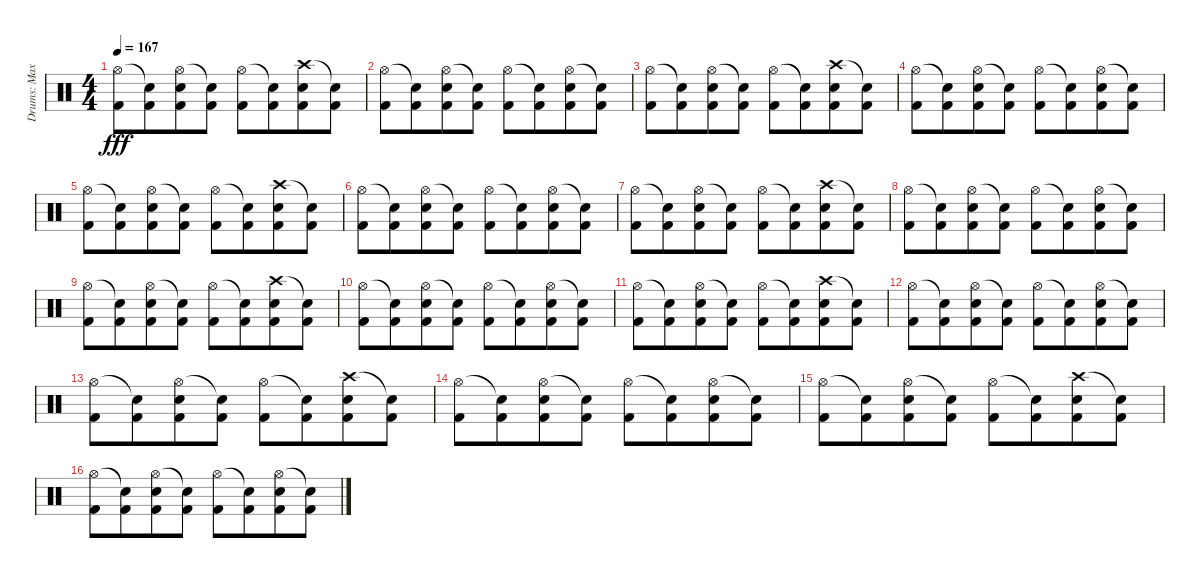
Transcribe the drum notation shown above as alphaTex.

\track ("Drums: Max" "Drums: Max") {instrument percussion}
\staff {score}
\articulation defaults
\ts (4 4)
\tempo 167
\clef neutral
\ks c
("Hi-Hat (open)" "Kick (hit) 2").8{dy fff} ("Snare (hit)"{t} "Kick (hit) 2").8{beam merge} ("Hi-Hat (open)" "Electric Snare (hit)" "Kick (hit) 2").8 ("Snare (hit)"{t} "Kick (hit) 2").8 ("Hi-Hat (open)" "Kick (hit) 2").8 ("Snare (hit)"{t} "Kick (hit) 2").8{beam merge} ("Crash high (hit)" "Electric Snare (hit)" "Kick (hit) 2").8 ("Snare (hit)"{t} "Kick (hit) 2").8 |
("Hi-Hat (open)" "Kick (hit) 2").8 ("Snare (hit)"{t} "Kick (hit) 2").8{beam merge} ("Hi-Hat (open)" "Electric Snare (hit)" "Kick (hit) 2").8 ("Snare (hit)"{t} "Kick (hit) 2").8 ("Hi-Hat (open)" "Kick (hit) 2").8 ("Snare (hit)"{t} "Kick (hit) 2").8{beam merge} ("Hi-Hat (open)" "Electric Snare (hit)" "Kick (hit) 2").8 ("Snare (hit)"{t} "Kick (hit) 2").8 |
("Hi-Hat (open)" "Kick (hit) 2").8 ("Snare (hit)"{t} "Kick (hit) 2").8{beam merge} ("Hi-Hat (open)" "Electric Snare (hit)" "Kick (hit) 2").8 ("Snare (hit)"{t} "Kick (hit) 2").8 ("Hi-Hat (open)" "Kick (hit) 2").8 ("Snare (hit)"{t} "Kick (hit) 2").8{beam merge} ("Crash high (hit)" "Electric Snare (hit)" "Kick (hit) 2").8 ("Snare (hit)"{t} "Kick (hit) 2").8 |
("Hi-Hat (open)" "Kick (hit) 2").8 ("Snare (hit)"{t} "Kick (hit) 2").8{beam merge} ("Hi-Hat (open)" "Electric Snare (hit)" "Kick (hit) 2").8 ("Snare (hit)"{t} "Kick (hit) 2").8 ("Hi-Hat (open)" "Kick (hit) 2").8 ("Snare (hit)"{t} "Kick (hit) 2").8{beam merge} ("Hi-Hat (open)" "Electric Snare (hit)" "Kick (hit) 2").8 ("Snare (hit)"{t} "Kick (hit) 2").8 |
("Hi-Hat (open)" "Kick (hit) 2").8 ("Snare (hit)"{t} "Kick (hit) 2").8{beam merge} ("Hi-Hat (open)" "Electric Snare (hit)" "Kick (hit) 2").8 ("Snare (hit)"{t} "Kick (hit) 2").8 ("Hi-Hat (open)" "Kick (hit) 2").8 ("Snare (hit)"{t} "Kick (hit) 2").8{beam merge} ("Crash high (hit)" "Electric Snare (hit)" "Kick (hit) 2").8 ("Snare (hit)"{t} "Kick (hit) 2").8 |
("Hi-Hat (open)" "Kick (hit) 2").8 ("Snare (hit)"{t} "Kick (hit) 2").8{beam merge} ("Hi-Hat (open)" "Electric Snare (hit)" "Kick (hit) 2").8 ("Snare (hit)"{t} "Kick (hit) 2").8 ("Hi-Hat (open)" "Kick (hit) 2").8 ("Snare (hit)"{t} "Kick (hit) 2").8{beam merge} ("Hi-Hat (open)" "Electric Snare (hit)" "Kick (hit) 2").8 ("Snare (hit)"{t} "Kick (hit) 2").8 |
("Hi-Hat (open)" "Kick (hit) 2").8 ("Snare (hit)"{t} "Kick (hit) 2").8{beam merge} ("Hi-Hat (open)" "Electric Snare (hit)" "Kick (hit) 2").8 ("Snare (hit)"{t} "Kick (hit) 2").8 ("Hi-Hat (open)" "Kick (hit) 2").8 ("Snare (hit)"{t} "Kick (hit) 2").8{beam merge} ("Crash high (hit)" "Electric Snare (hit)" "Kick (hit) 2").8 ("Snare (hit)"{t} "Kick (hit) 2").8 |
("Hi-Hat (open)" "Kick (hit) 2").8 ("Snare (hit)"{t} "Kick (hit) 2").8{beam merge} ("Hi-Hat (open)" "Electric Snare (hit)" "Kick (hit) 2").8 ("Snare (hit)"{t} "Kick (hit) 2").8 ("Hi-Hat (open)" "Kick (hit) 2").8 ("Snare (hit)"{t} "Kick (hit) 2").8{beam merge} ("Hi-Hat (open)" "Electric Snare (hit)" "Kick (hit) 2").8 ("Snare (hit)"{t} "Kick (hit) 2").8 |
("Hi-Hat (open)" "Kick (hit) 2").8 ("Snare (hit)"{t} "Kick (hit) 2").8{beam merge} ("Hi-Hat (open)" "Electric Snare (hit)" "Kick (hit) 2").8 ("Snare (hit)"{t} "Kick (hit) 2").8 ("Hi-Hat (open)" "Kick (hit) 2").8 ("Snare (hit)"{t} "Kick (hit) 2").8{beam merge} ("Crash high (hit)" "Electric Snare (hit)" "Kick (hit) 2").8 ("Snare (hit)"{t} "Kick (hit) 2").8 |
("Hi-Hat (open)" "Kick (hit) 2").8 ("Snare (hit)"{t} "Kick (hit) 2").8{beam merge} ("Hi-Hat (open)" "Electric Snare (hit)" "Kick (hit) 2").8 ("Snare (hit)"{t} "Kick (hit) 2").8 ("Hi-Hat (open)" "Kick (hit) 2").8 ("Snare (hit)"{t} "Kick (hit) 2").8{beam merge} ("Hi-Hat (open)" "Electric Snare (hit)" "Kick (hit) 2").8 ("Snare (hit)"{t} "Kick (hit) 2").8 |
("Hi-Hat (open)" "Kick (hit) 2").8 ("Snare (hit)"{t} "Kick (hit) 2").8{beam merge} ("Hi-Hat (open)" "Electric Snare (hit)" "Kick (hit) 2").8 ("Snare (hit)"{t} "Kick (hit) 2").8 ("Hi-Hat (open)" "Kick (hit) 2").8 ("Snare (hit)"{t} "Kick (hit) 2").8{beam merge} ("Crash high (hit)" "Electric Snare (hit)" "Kick (hit) 2").8 ("Snare (hit)"{t} "Kick (hit) 2").8 |
("Hi-Hat (open)" "Kick (hit) 2").8 ("Snare (hit)"{t} "Kick (hit) 2").8{beam merge} ("Hi-Hat (open)" "Electric Snare (hit)" "Kick (hit) 2").8 ("Snare (hit)"{t} "Kick (hit) 2").8 ("Hi-Hat (open)" "Kick (hit) 2").8 ("Snare (hit)"{t} "Kick (hit) 2").8{beam merge} ("Hi-Hat (open)" "Electric Snare (hit)" "Kick (hit) 2").8 ("Snare (hit)"{t} "Kick (hit) 2").8 |
("Hi-Hat (open)" "Kick (hit) 2").8 ("Snare (hit)"{t} "Kick (hit) 2").8{beam merge} ("Hi-Hat (open)" "Electric Snare (hit)" "Kick (hit) 2").8 ("Snare (hit)"{t} "Kick (hit) 2").8 ("Hi-Hat (open)" "Kick (hit) 2").8 ("Snare (hit)"{t} "Kick (hit) 2").8{beam merge} ("Crash high (hit)" "Electric Snare (hit)" "Kick (hit) 2").8 ("Snare (hit)"{t} "Kick (hit) 2").8 |
("Hi-Hat (open)" "Kick (hit) 2").8 ("Snare (hit)"{t} "Kick (hit) 2").8{beam merge} ("Hi-Hat (open)" "Electric Snare (hit)" "Kick (hit) 2").8 ("Snare (hit)"{t} "Kick (hit) 2").8 ("Hi-Hat (open)" "Kick (hit) 2").8 ("Snare (hit)"{t} "Kick (hit) 2").8{beam merge} ("Hi-Hat (open)" "Electric Snare (hit)" "Kick (hit) 2").8 ("Snare (hit)"{t} "Kick (hit) 2").8 |
("Hi-Hat (open)" "Kick (hit) 2").8 ("Snare (hit)"{t} "Kick (hit) 2").8{beam merge} ("Hi-Hat (open)" "Electric Snare (hit)" "Kick (hit) 2").8 ("Snare (hit)"{t} "Kick (hit) 2").8 ("Hi-Hat (open)" "Kick (hit) 2").8 ("Snare (hit)"{t} "Kick (hit) 2").8{beam merge} ("Crash high (hit)" "Electric Snare (hit)" "Kick (hit) 2").8 ("Snare (hit)"{t} "Kick (hit) 2").8 |
("Hi-Hat (open)" "Kick (hit) 2").8 ("Snare (hit)"{t} "Kick (hit) 2").8{beam merge} ("Hi-Hat (open)" "Electric Snare (hit)" "Kick (hit) 2").8 ("Snare (hit)"{t} "Kick (hit) 2").8 ("Hi-Hat (open)" "Kick (hit) 2").8 ("Snare (hit)"{t} "Kick (hit) 2").8{beam merge} ("Hi-Hat (open)" "Electric Snare (hit)" "Kick (hit) 2").8 ("Snare (hit)"{t} "Kick (hit) 2").8
